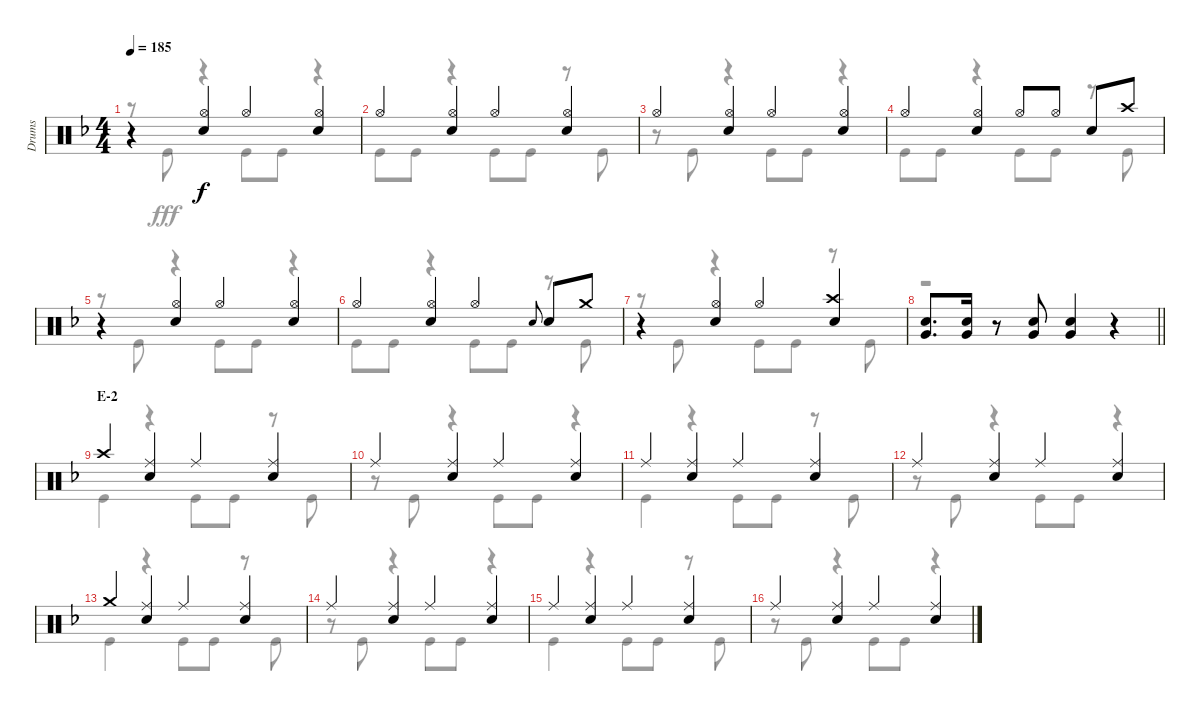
\track ("Drums" "Drums") {instrument percussion}
\staff {score}
\articulation defaults
\voice
\ts (4 4)
\tempo 185
\clef neutral
\ks f
r.4{dy f} ("Hi-Hat (open)" "Snare (hit) 2").4 "Hi-Hat (open)".4 ("Hi-Hat (open)" "Snare (hit) 2").4 |
"Hi-Hat (open)".4 ("Hi-Hat (open)" "Snare (hit) 2").4 "Hi-Hat (open)".4 ("Hi-Hat (open)" "Snare (hit) 2").4 |
"Hi-Hat (open)".4 ("Hi-Hat (open)" "Snare (hit) 2").4 "Hi-Hat (open)".4 ("Hi-Hat (open)" "Snare (hit) 2").4 |
"Hi-Hat (open)".4 ("Hi-Hat (open)" "Snare (hit) 2").4 "Hi-Hat (open)".8 "Hi-Hat (open)".8 "Snare (hit) 2".8 "Crash high (hit)".8 |
r.4 ("Hi-Hat (open)" "Snare (hit) 2").4 "Hi-Hat (open)".4 ("Hi-Hat (open)" "Snare (hit) 2").4 |
"Hi-Hat (open)".4 ("Hi-Hat (open)" "Snare (hit) 2").4 "Hi-Hat (open)".4 "Snare (hit) 2".8{gr onbeat} "Snare (hit) 2".8 "Crash medium (hit)".8 |
r.4 ("Hi-Hat (open)" "Snare (hit) 2").4 "Hi-Hat (open)".4 ("Crash high (hit)" "Snare (hit) 2").4 |
\barLineRight lightlight
("Snare (hit) 2" "Very Low Tom (hit)").8{d} ("Snare (hit) 2" "Very Low Tom (hit)").16 r.8 ("Snare (hit) 2" "Very Low Tom (hit)").8 ("Snare (hit) 2" "Very Low Tom (hit)").4 r.4 |
\section ("" "E-2")
"Crash high (hit)".4 ("Ride (middle)" "Snare (hit) 2").4 "Ride (middle)".4 ("Ride (middle)" "Snare (hit) 2").4 |
"Ride (middle)".4 ("Ride (middle)" "Snare (hit) 2").4 "Ride (middle)".4 ("Ride (middle)" "Snare (hit) 2").4 |
"Ride (middle)".4 ("Ride (middle)" "Snare (hit) 2").4 "Ride (middle)".4 ("Ride (middle)" "Snare (hit) 2").4 |
"Ride (middle)".4 ("Ride (middle)" "Snare (hit) 2").4 "Ride (middle)".4 ("Ride (middle)" "Snare (hit) 2").4 |
"Crash medium (hit)".4 ("Ride (middle)" "Snare (hit) 2").4 "Ride (middle)".4 ("Ride (middle)" "Snare (hit) 2").4 |
"Ride (middle)".4 ("Ride (middle)" "Snare (hit) 2").4 "Ride (middle)".4 ("Ride (middle)" "Snare (hit) 2").4 |
"Ride (middle)".4 ("Ride (middle)" "Snare (hit) 2").4 "Ride (middle)".4 ("Ride (middle)" "Snare (hit) 2").4 |
"Ride (middle)".4 ("Ride (middle)" "Snare (hit) 2").4 "Ride (middle)".4 ("Ride (middle)" "Snare (hit) 2").4
\voice
\clef neutral
\ottava regular
\simile none
\ks f
r.8{dy fff} "Kick (hit)".8 r.4 "Kick (hit)".8 "Kick (hit)".8 r.4 |
"Kick (hit)".8 "Kick (hit)".8 r.4 "Kick (hit)".8 "Kick (hit)".8 r.8 "Kick (hit)".8 |
r.8 "Kick (hit)".8 r.4 "Kick (hit)".8 "Kick (hit)".8 r.4 |
"Kick (hit)".8 "Kick (hit)".8 r.4 "Kick (hit)".8 "Kick (hit)".8 r.8 "Kick (hit)".8 |
r.8 "Kick (hit)".8 r.4 "Kick (hit)".8 "Kick (hit)".8 r.4 |
"Kick (hit)".8 "Kick (hit)".8 r.4 "Kick (hit)".8 "Kick (hit)".8 r.8 "Kick (hit)".8 |
r.8 "Kick (hit)".8 r.4 "Kick (hit)".8 "Kick (hit)".8 r.8 "Kick (hit)".8 |
\barLineRight lightlight
r.1 |
"Kick (hit)".4 r.4 "Kick (hit)".8 "Kick (hit)".8 r.8 "Kick (hit)".8 |
r.8 "Kick (hit)".8 r.4 "Kick (hit)".8 "Kick (hit)".8 r.4 |
"Kick (hit)".4 r.4 "Kick (hit)".8 "Kick (hit)".8 r.8 "Kick (hit)".8 |
r.8 "Kick (hit)".8 r.4 "Kick (hit)".8 "Kick (hit)".8 r.4 |
"Kick (hit)".4 r.4 "Kick (hit)".8 "Kick (hit)".8 r.8 "Kick (hit)".8 |
r.8 "Kick (hit)".8 r.4 "Kick (hit)".8 "Kick (hit)".8 r.4 |
"Kick (hit)".4 r.4 "Kick (hit)".8 "Kick (hit)".8 r.8 "Kick (hit)".8 |
r.8 "Kick (hit)".8 r.4 "Kick (hit)".8 "Kick (hit)".8 r.4
